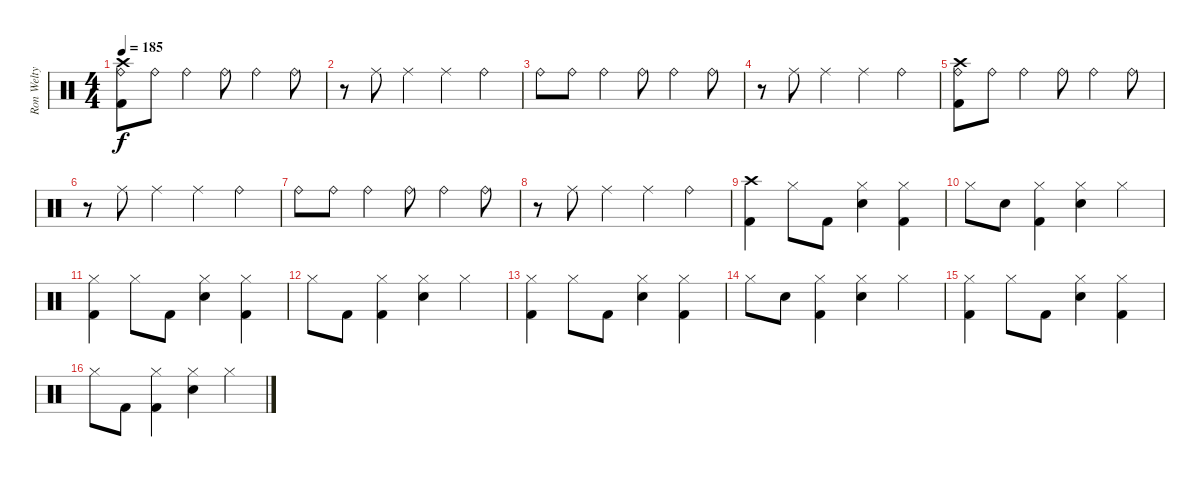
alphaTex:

\track ("Ron Welty" "Ron Welty") {instrument percussion}
\staff {score}
\articulation defaults
\ts (4 4)
\tempo 185
\clef neutral
\ks c
("Crash high (hit)" "Ride (bell)" "Kick (hit) 2").8{dy f} "Ride (bell)".8 "Ride (bell)".4 "Ride (bell)".8 "Ride (bell)".4 "Ride (bell)".8 |
r.8 "Ride (middle)".8 "Ride (middle)".4 "Ride (middle)".4 "Ride (bell)".4 |
"Ride (bell)".8 "Ride (bell)".8 "Ride (bell)".4 "Ride (bell)".8 "Ride (bell)".4 "Ride (bell)".8 |
r.8 "Ride (middle)".8 "Ride (middle)".4 "Ride (middle)".4 "Ride (bell)".4 |
("Crash high (hit)" "Ride (bell)" "Kick (hit) 2").8 "Ride (bell)".8 "Ride (bell)".4 "Ride (bell)".8 "Ride (bell)".4 "Ride (bell)".8 |
r.8 "Ride (middle)".8 "Ride (middle)".4 "Ride (middle)".4 "Ride (bell)".4 |
"Ride (bell)".8 "Ride (bell)".8 "Ride (bell)".4 "Ride (bell)".8 "Ride (bell)".4 "Ride (bell)".8 |
r.8 "Ride (middle)".8 "Ride (middle)".4 "Ride (middle)".4 "Ride (bell)".4 |
("Crash high (hit)" "Kick (hit) 2").4 "Hi-Hat (closed)".8 "Kick (hit) 2".8 ("Hi-Hat (closed)" "Electric Snare (hit)").4 ("Hi-Hat (closed)" "Kick (hit) 2").4 |
"Hi-Hat (closed)".8 "Electric Snare (hit)".8 ("Hi-Hat (closed)" "Kick (hit) 2").4 ("Hi-Hat (closed)" "Electric Snare (hit)").4 "Hi-Hat (closed)".4 |
("Hi-Hat (closed)" "Kick (hit) 2").4 "Hi-Hat (closed)".8 "Kick (hit) 2".8 ("Hi-Hat (closed)" "Electric Snare (hit)").4 ("Hi-Hat (closed)" "Kick (hit) 2").4 |
"Hi-Hat (closed)".8 "Kick (hit) 2".8 ("Hi-Hat (closed)" "Kick (hit) 2").4 ("Hi-Hat (closed)" "Electric Snare (hit)").4 "Hi-Hat (closed)".4 |
("Hi-Hat (closed)" "Kick (hit) 2").4 "Hi-Hat (closed)".8 "Kick (hit) 2".8 ("Hi-Hat (closed)" "Electric Snare (hit)").4 ("Hi-Hat (closed)" "Kick (hit) 2").4 |
"Hi-Hat (closed)".8 "Electric Snare (hit)".8 ("Hi-Hat (closed)" "Kick (hit) 2").4 ("Hi-Hat (closed)" "Electric Snare (hit)").4 "Hi-Hat (closed)".4 |
("Hi-Hat (closed)" "Kick (hit) 2").4 "Hi-Hat (closed)".8 "Kick (hit) 2".8 ("Hi-Hat (closed)" "Electric Snare (hit)").4 ("Hi-Hat (closed)" "Kick (hit) 2").4 |
"Hi-Hat (closed)".8 "Kick (hit) 2".8 ("Hi-Hat (closed)" "Kick (hit) 2").4 ("Hi-Hat (closed)" "Electric Snare (hit)").4 "Hi-Hat (closed)".4
